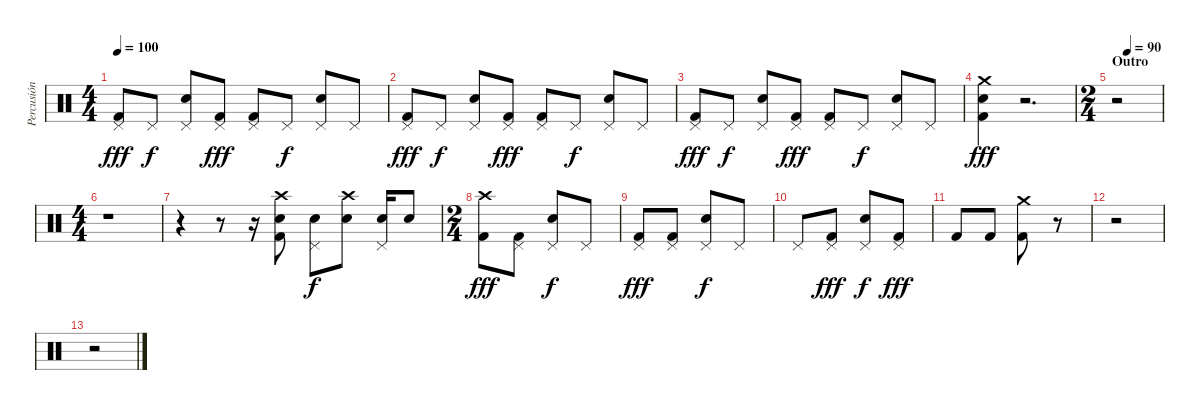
\track ("Percusión" "Percusión") {instrument percussion}
\staff {score}
\articulation defaults
\ts (4 4)
\tempo 100
\clef neutral
\ks c
("Pedal Hi-Hat (hit)" "Kick (hit) 2").8{dy fff} "Pedal Hi-Hat (hit)".8{dy f} ("Pedal Hi-Hat (hit)" "Snare (hit) 2").8 ("Pedal Hi-Hat (hit)" "Kick (hit) 2").8{dy fff} ("Pedal Hi-Hat (hit)" "Kick (hit) 2").8 "Pedal Hi-Hat (hit)".8{dy f} ("Pedal Hi-Hat (hit)" "Snare (hit) 2").8 "Pedal Hi-Hat (hit)".8 |
("Pedal Hi-Hat (hit)" "Kick (hit) 2").8{dy fff} "Pedal Hi-Hat (hit)".8{dy f} ("Pedal Hi-Hat (hit)" "Snare (hit) 2").8 ("Pedal Hi-Hat (hit)" "Kick (hit) 2").8{dy fff} ("Pedal Hi-Hat (hit)" "Kick (hit) 2").8 "Pedal Hi-Hat (hit)".8{dy f} ("Pedal Hi-Hat (hit)" "Snare (hit) 2").8 "Pedal Hi-Hat (hit)".8 |
("Pedal Hi-Hat (hit)" "Kick (hit) 2").8{dy fff} "Pedal Hi-Hat (hit)".8{dy f} ("Pedal Hi-Hat (hit)" "Snare (hit) 2").8 ("Pedal Hi-Hat (hit)" "Kick (hit) 2").8{dy fff} ("Pedal Hi-Hat (hit)" "Kick (hit) 2").8 "Pedal Hi-Hat (hit)".8{dy f} ("Pedal Hi-Hat (hit)" "Snare (hit) 2").8 "Pedal Hi-Hat (hit)".8 |
("Crash medium (hit)" "Kick (hit) 2" "Snare (hit) 2").4{dy fff} r.2{d} |
\ts (2 4)
\section ("" "Outro")
\tempo (90 0.25)
r.2 |
\ts (4 4)
r.1 |
r.4 r.8 r.16 ("Crash high (hit)" "Snare (hit) 2" "Kick (hit) 2").8 ("Pedal Hi-Hat (hit)" "Snare (hit) 2").8{dy f} ("Crash high (hit)" "Snare (hit) 2").8 ("Pedal Hi-Hat (hit)" "Snare (hit) 2").16 "Snare (hit) 2".8 |
\ts (2 4)
("Crash high (hit)" "Kick (hit) 2").8{dy fff} ("Pedal Hi-Hat (hit)" "Kick (hit) 2").8 ("Pedal Hi-Hat (hit)" "Snare (hit) 2").8{dy f} "Pedal Hi-Hat (hit)".8 |
("Pedal Hi-Hat (hit)" "Kick (hit) 2").8{dy fff} ("Pedal Hi-Hat (hit)" "Kick (hit) 2").8 ("Pedal Hi-Hat (hit)" "Snare (hit) 2").8{dy f} "Pedal Hi-Hat (hit)".8 |
"Pedal Hi-Hat (hit)".8 ("Pedal Hi-Hat (hit)" "Kick (hit) 2").8{dy fff} ("Pedal Hi-Hat (hit)" "Snare (hit) 2").8{dy f} ("Pedal Hi-Hat (hit)" "Kick (hit) 2").8{dy fff balance 11} |
"Kick (hit) 2".8{balance 5} "Kick (hit) 2".8{balance 13} ("Kick (hit) 2" "Crash medium (hit)").8{balance 10} r.8 |
r.2 |
r.2
